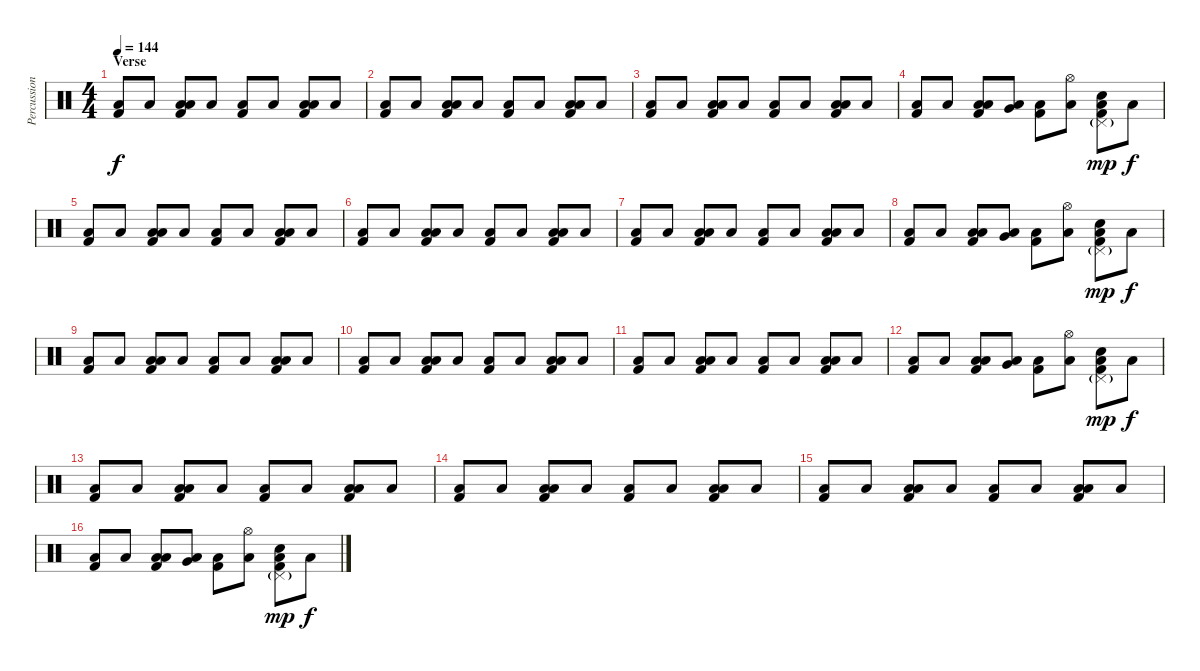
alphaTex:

\track ("Percussion" "Percussion") {instrument percussion}
\staff {score}
\articulation defaults
\ts (4 4)
\section ("" "Verse")
\tempo 144
\clef neutral
\ks c
("Low Floor Tom (hit)" "Kick (hit) 2").8{dy f} "Low Floor Tom (hit)".8 ("Low Tom (hit)" "Low Floor Tom (hit)" "Kick (hit) 2").8 "Low Floor Tom (hit)".8 ("Low Floor Tom (hit)" "Kick (hit) 2").8 "Low Floor Tom (hit)".8 ("Low Tom (hit)" "Low Floor Tom (hit)" "Kick (hit) 2").8 "Low Floor Tom (hit)".8 |
("Low Floor Tom (hit)" "Kick (hit) 2").8 "Low Floor Tom (hit)".8 ("Low Tom (hit)" "Low Floor Tom (hit)" "Kick (hit) 2").8 "Low Floor Tom (hit)".8 ("Low Floor Tom (hit)" "Kick (hit) 2").8 "Low Floor Tom (hit)".8 ("Low Tom (hit)" "Low Floor Tom (hit)" "Kick (hit) 2").8 "Low Floor Tom (hit)".8 |
("Low Floor Tom (hit)" "Kick (hit) 2").8 "Low Floor Tom (hit)".8 ("Low Tom (hit)" "Low Floor Tom (hit)" "Kick (hit) 2").8 "Low Floor Tom (hit)".8 ("Low Floor Tom (hit)" "Kick (hit) 2").8 "Low Floor Tom (hit)".8 ("Low Tom (hit)" "Low Floor Tom (hit)" "Kick (hit) 2").8 "Low Floor Tom (hit)".8 |
("Low Floor Tom (hit)" "Kick (hit) 2").8 "Low Floor Tom (hit)".8 ("Low Tom (hit)" "Low Floor Tom (hit)" "Kick (hit) 2").8 ("Very Low Tom (hit)" "Low Floor Tom (hit)").8 ("Low Floor Tom (hit)" "Kick (hit) 2").8 ("Hi-Hat (open)" "Low Floor Tom (hit)").8 ("Pedal Hi-Hat (hit)"{g} "Electric Snare (hit)" "Low Floor Tom (hit)" "Kick (hit) 2").8{dy mp} "Low Floor Tom (hit)".8{dy f} |
("Low Floor Tom (hit)" "Kick (hit) 2").8 "Low Floor Tom (hit)".8 ("Low Tom (hit)" "Low Floor Tom (hit)" "Kick (hit) 2").8 "Low Floor Tom (hit)".8 ("Low Floor Tom (hit)" "Kick (hit) 2").8 "Low Floor Tom (hit)".8 ("Low Tom (hit)" "Low Floor Tom (hit)" "Kick (hit) 2").8 "Low Floor Tom (hit)".8 |
("Low Floor Tom (hit)" "Kick (hit) 2").8 "Low Floor Tom (hit)".8 ("Low Tom (hit)" "Low Floor Tom (hit)" "Kick (hit) 2").8 "Low Floor Tom (hit)".8 ("Low Floor Tom (hit)" "Kick (hit) 2").8 "Low Floor Tom (hit)".8 ("Low Tom (hit)" "Low Floor Tom (hit)" "Kick (hit) 2").8 "Low Floor Tom (hit)".8 |
("Low Floor Tom (hit)" "Kick (hit) 2").8 "Low Floor Tom (hit)".8 ("Low Tom (hit)" "Low Floor Tom (hit)" "Kick (hit) 2").8 "Low Floor Tom (hit)".8 ("Low Floor Tom (hit)" "Kick (hit) 2").8 "Low Floor Tom (hit)".8 ("Low Tom (hit)" "Low Floor Tom (hit)" "Kick (hit) 2").8 "Low Floor Tom (hit)".8 |
("Low Floor Tom (hit)" "Kick (hit) 2").8 "Low Floor Tom (hit)".8 ("Low Tom (hit)" "Low Floor Tom (hit)" "Kick (hit) 2").8 ("Very Low Tom (hit)" "Low Floor Tom (hit)").8 ("Low Floor Tom (hit)" "Kick (hit) 2").8 ("Hi-Hat (open)" "Low Floor Tom (hit)").8 ("Pedal Hi-Hat (hit)"{g} "Electric Snare (hit)" "Low Floor Tom (hit)" "Kick (hit) 2").8{dy mp} "Low Floor Tom (hit)".8{dy f} |
("Low Floor Tom (hit)" "Kick (hit) 2").8 "Low Floor Tom (hit)".8 ("Low Tom (hit)" "Low Floor Tom (hit)" "Kick (hit) 2").8 "Low Floor Tom (hit)".8 ("Low Floor Tom (hit)" "Kick (hit) 2").8 "Low Floor Tom (hit)".8 ("Low Tom (hit)" "Low Floor Tom (hit)" "Kick (hit) 2").8 "Low Floor Tom (hit)".8 |
("Low Floor Tom (hit)" "Kick (hit) 2").8 "Low Floor Tom (hit)".8 ("Low Tom (hit)" "Low Floor Tom (hit)" "Kick (hit) 2").8 "Low Floor Tom (hit)".8 ("Low Floor Tom (hit)" "Kick (hit) 2").8 "Low Floor Tom (hit)".8 ("Low Tom (hit)" "Low Floor Tom (hit)" "Kick (hit) 2").8 "Low Floor Tom (hit)".8 |
("Low Floor Tom (hit)" "Kick (hit) 2").8 "Low Floor Tom (hit)".8 ("Low Tom (hit)" "Low Floor Tom (hit)" "Kick (hit) 2").8 "Low Floor Tom (hit)".8 ("Low Floor Tom (hit)" "Kick (hit) 2").8 "Low Floor Tom (hit)".8 ("Low Tom (hit)" "Low Floor Tom (hit)" "Kick (hit) 2").8 "Low Floor Tom (hit)".8 |
("Low Floor Tom (hit)" "Kick (hit) 2").8 "Low Floor Tom (hit)".8 ("Low Tom (hit)" "Low Floor Tom (hit)" "Kick (hit) 2").8 ("Very Low Tom (hit)" "Low Floor Tom (hit)").8 ("Low Floor Tom (hit)" "Kick (hit) 2").8 ("Hi-Hat (open)" "Low Floor Tom (hit)").8 ("Pedal Hi-Hat (hit)"{g} "Electric Snare (hit)" "Low Floor Tom (hit)" "Kick (hit) 2").8{dy mp} "Low Floor Tom (hit)".8{dy f} |
("Low Floor Tom (hit)" "Kick (hit) 2").8 "Low Floor Tom (hit)".8 ("Low Tom (hit)" "Low Floor Tom (hit)" "Kick (hit) 2").8 "Low Floor Tom (hit)".8 ("Low Floor Tom (hit)" "Kick (hit) 2").8 "Low Floor Tom (hit)".8 ("Low Tom (hit)" "Low Floor Tom (hit)" "Kick (hit) 2").8 "Low Floor Tom (hit)".8 |
("Low Floor Tom (hit)" "Kick (hit) 2").8 "Low Floor Tom (hit)".8 ("Low Tom (hit)" "Low Floor Tom (hit)" "Kick (hit) 2").8 "Low Floor Tom (hit)".8 ("Low Floor Tom (hit)" "Kick (hit) 2").8 "Low Floor Tom (hit)".8 ("Low Tom (hit)" "Low Floor Tom (hit)" "Kick (hit) 2").8 "Low Floor Tom (hit)".8 |
("Low Floor Tom (hit)" "Kick (hit) 2").8 "Low Floor Tom (hit)".8 ("Low Tom (hit)" "Low Floor Tom (hit)" "Kick (hit) 2").8 "Low Floor Tom (hit)".8 ("Low Floor Tom (hit)" "Kick (hit) 2").8 "Low Floor Tom (hit)".8 ("Low Tom (hit)" "Low Floor Tom (hit)" "Kick (hit) 2").8 "Low Floor Tom (hit)".8 |
("Low Floor Tom (hit)" "Kick (hit) 2").8 "Low Floor Tom (hit)".8 ("Low Tom (hit)" "Low Floor Tom (hit)" "Kick (hit) 2").8 ("Very Low Tom (hit)" "Low Floor Tom (hit)").8 ("Low Floor Tom (hit)" "Kick (hit) 2").8 ("Hi-Hat (open)" "Low Floor Tom (hit)").8 ("Pedal Hi-Hat (hit)"{g} "Electric Snare (hit)" "Low Floor Tom (hit)" "Kick (hit) 2").8{dy mp} "Low Floor Tom (hit)".8{dy f}
